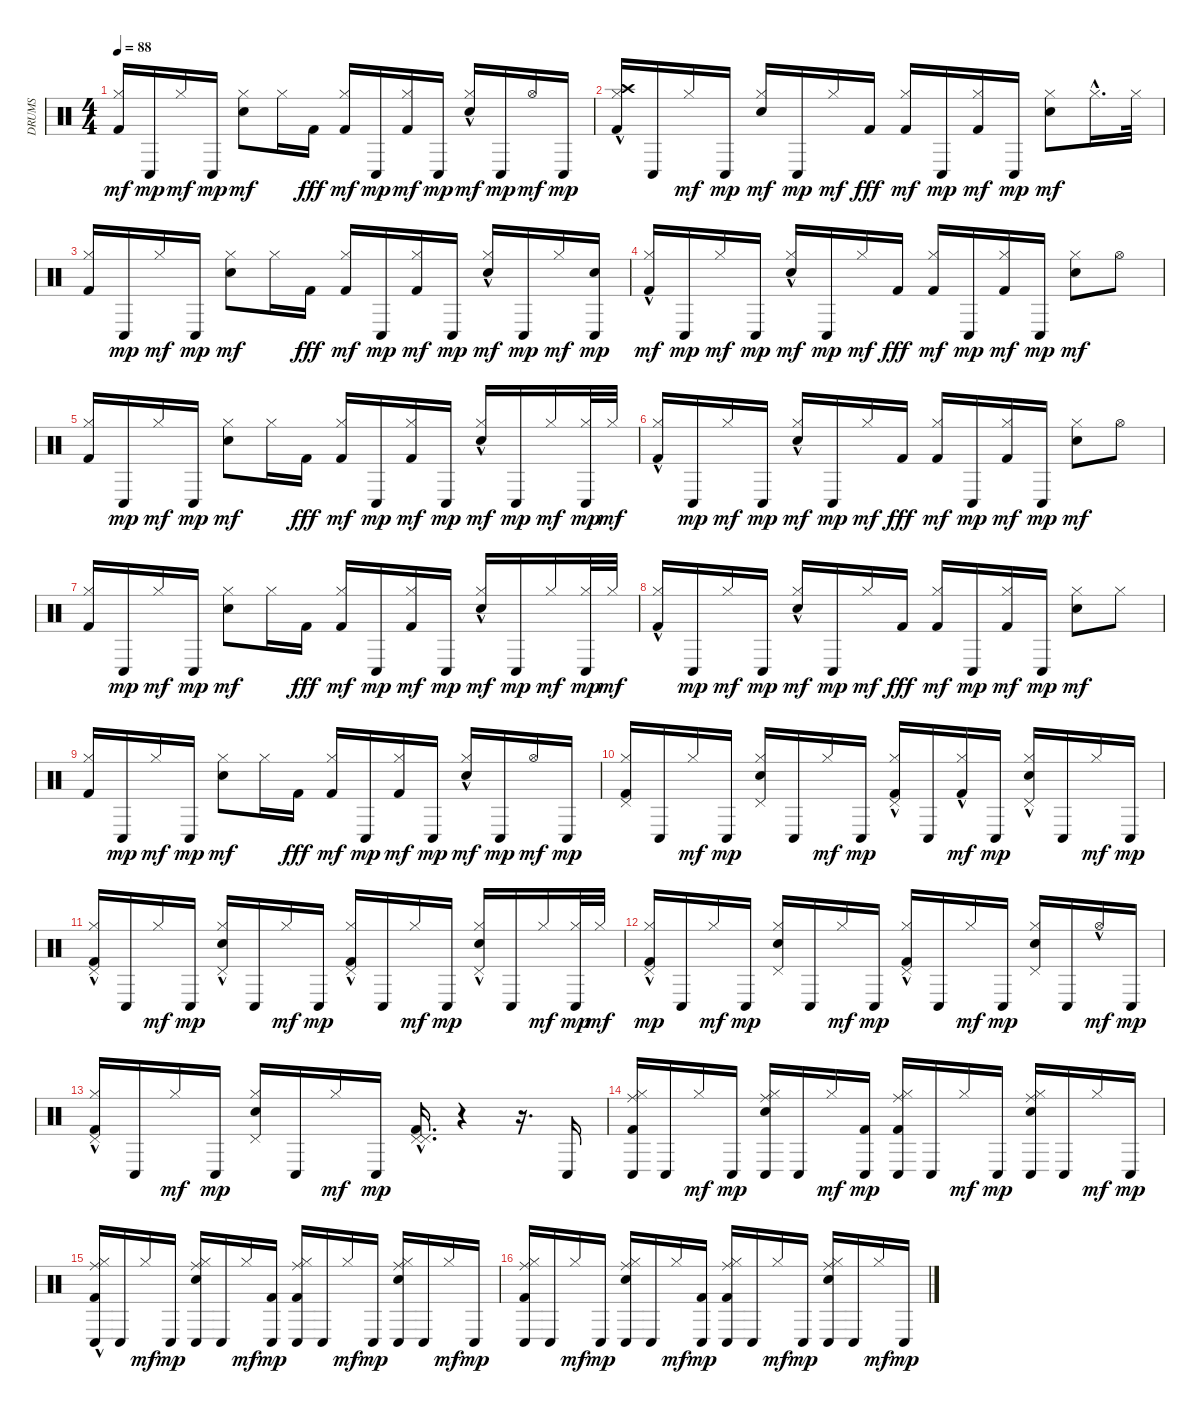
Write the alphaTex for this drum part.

\track ("DRUMS" "DRUMS") {instrument percussion}
\staff {score}
\articulation defaults
\ts (4 4)
\tempo 88
\clef neutral
\ks c
("Kick (hit) 2" "Hi-Hat (closed)").16{dy mf} "Conga low (hit)".16{dy mp} "Hi-Hat (closed)".16{dy mf} "Conga low (hit)".16{dy mp} ("Snare (hit) 2" "Hi-Hat (closed)").8{dy mf} "Hi-Hat (closed)".16 "Kick (hit) 2".16{dy fff} ("Kick (hit) 2" "Hi-Hat (closed)").16{dy mf} "Conga low (hit)".16{dy mp} ("Kick (hit) 2" "Hi-Hat (closed)").16{dy mf} "Conga low (hit)".16{dy mp} ("Snare (hit) 2"{hac} "Hi-Hat (closed)").16{dy mf} "Conga low (hit)".16{dy mp} "Hi-Hat (open)".16{dy mf} "Conga low (hit)".16{dy mp} |
("Kick (hit) 2"{hac} "Hi-Hat (closed)" "Crash high (hit)").16 "Conga low (hit)".16 "Hi-Hat (closed)".16{dy mf} "Conga low (hit)".16{dy mp} ("Snare (hit) 2" "Hi-Hat (closed)").16{dy mf} "Conga low (hit)".16{dy mp} "Hi-Hat (closed)".16{dy mf} "Kick (hit) 2".16{dy fff} ("Kick (hit) 2" "Hi-Hat (closed)").16{dy mf} "Conga low (hit)".16{dy mp} ("Kick (hit) 2" "Hi-Hat (closed)").16{dy mf} "Conga low (hit)".16{dy mp} ("Snare (hit) 2" "Hi-Hat (closed)").8{dy mf} "Hi-Hat (closed)"{hac}.16{d} "Hi-Hat (closed)".32 |
("Kick (hit) 2" "Hi-Hat (closed)").16 "Conga low (hit)".16{dy mp} "Hi-Hat (closed)".16{dy mf} "Conga low (hit)".16{dy mp} ("Snare (hit) 2" "Hi-Hat (closed)").8{dy mf} "Hi-Hat (closed)".16 "Kick (hit) 2".16{dy fff} ("Kick (hit) 2" "Hi-Hat (closed)").16{dy mf} "Conga low (hit)".16{dy mp} ("Kick (hit) 2" "Hi-Hat (closed)").16{dy mf} "Conga low (hit)".16{dy mp} ("Snare (hit) 2"{hac} "Hi-Hat (closed)").16{dy mf} "Conga low (hit)".16{dy mp} "Hi-Hat (closed)".16{dy mf} ("Snare (hit) 2" "Conga low (hit)").16{dy mp} |
("Kick (hit) 2"{hac} "Hi-Hat (closed)").16{dy mf} "Conga low (hit)".16{dy mp} "Hi-Hat (closed)".16{dy mf} "Conga low (hit)".16{dy mp} ("Snare (hit) 2"{hac} "Hi-Hat (closed)").16{dy mf} "Conga low (hit)".16{dy mp} "Hi-Hat (closed)".16{dy mf} "Kick (hit) 2".16{dy fff} ("Kick (hit) 2" "Hi-Hat (closed)").16{dy mf} "Conga low (hit)".16{dy mp} ("Kick (hit) 2" "Hi-Hat (closed)").16{dy mf} "Conga low (hit)".16{dy mp} ("Snare (hit) 2" "Hi-Hat (closed)").8{dy mf} "Hi-Hat (open)".8 |
("Kick (hit) 2" "Hi-Hat (closed)").16 "Conga low (hit)".16{dy mp} "Hi-Hat (closed)".16{dy mf} "Conga low (hit)".16{dy mp} ("Snare (hit) 2" "Hi-Hat (closed)").8{dy mf} "Hi-Hat (closed)".16 "Kick (hit) 2".16{dy fff} ("Kick (hit) 2" "Hi-Hat (closed)").16{dy mf} "Conga low (hit)".16{dy mp} ("Kick (hit) 2" "Hi-Hat (closed)").16{dy mf} "Conga low (hit)".16{dy mp} ("Snare (hit) 2"{hac} "Hi-Hat (closed)").16{dy mf} "Conga low (hit)".16{dy mp} "Hi-Hat (closed)".16{dy mf} ("Hi-Hat (closed)" "Conga low (hit)").32{dy mp} "Hi-Hat (closed)".32{dy mf} |
("Kick (hit) 2"{hac} "Hi-Hat (closed)").16 "Conga low (hit)".16{dy mp} "Hi-Hat (closed)".16{dy mf} "Conga low (hit)".16{dy mp} ("Snare (hit) 2"{hac} "Hi-Hat (closed)").16{dy mf} "Conga low (hit)".16{dy mp} "Hi-Hat (closed)".16{dy mf} "Kick (hit) 2".16{dy fff} ("Kick (hit) 2" "Hi-Hat (closed)").16{dy mf} "Conga low (hit)".16{dy mp} ("Kick (hit) 2" "Hi-Hat (closed)").16{dy mf} "Conga low (hit)".16{dy mp} ("Snare (hit) 2" "Hi-Hat (closed)").8{dy mf} "Hi-Hat (open)".8 |
("Kick (hit) 2" "Hi-Hat (closed)").16 "Conga low (hit)".16{dy mp} "Hi-Hat (closed)".16{dy mf} "Conga low (hit)".16{dy mp} ("Snare (hit) 2" "Hi-Hat (closed)").8{dy mf} "Hi-Hat (closed)".16 "Kick (hit) 2".16{dy fff} ("Kick (hit) 2" "Hi-Hat (closed)").16{dy mf} "Conga low (hit)".16{dy mp} ("Kick (hit) 2" "Hi-Hat (closed)").16{dy mf} "Conga low (hit)".16{dy mp} ("Snare (hit) 2"{hac} "Hi-Hat (closed)").16{dy mf} "Conga low (hit)".16{dy mp} "Hi-Hat (closed)".16{dy mf} ("Hi-Hat (closed)" "Conga low (hit)").32{dy mp} "Hi-Hat (closed)".32{dy mf} |
("Kick (hit) 2"{hac} "Hi-Hat (closed)").16 "Conga low (hit)".16{dy mp} "Hi-Hat (closed)".16{dy mf} "Conga low (hit)".16{dy mp} ("Snare (hit) 2"{hac} "Hi-Hat (closed)").16{dy mf} "Conga low (hit)".16{dy mp} "Hi-Hat (closed)".16{dy mf} "Kick (hit) 2".16{dy fff} ("Kick (hit) 2" "Hi-Hat (closed)").16{dy mf} "Conga low (hit)".16{dy mp} ("Kick (hit) 2" "Hi-Hat (closed)").16{dy mf} "Conga low (hit)".16{dy mp} ("Snare (hit) 2" "Hi-Hat (closed)").8{dy mf} "Hi-Hat (closed)".8 |
("Kick (hit) 2" "Hi-Hat (closed)").16 "Conga low (hit)".16{dy mp} "Hi-Hat (closed)".16{dy mf} "Conga low (hit)".16{dy mp} ("Snare (hit) 2" "Hi-Hat (closed)").8{dy mf} "Hi-Hat (closed)".16 "Kick (hit) 2".16{dy fff} ("Kick (hit) 2" "Hi-Hat (closed)").16{dy mf} "Conga low (hit)".16{dy mp} ("Kick (hit) 2" "Hi-Hat (closed)").16{dy mf} "Conga low (hit)".16{dy mp} ("Snare (hit) 2"{hac} "Hi-Hat (closed)").16{dy mf} "Conga low (hit)".16{dy mp} "Hi-Hat (open)".16{dy mf} "Conga low (hit)".16{dy mp} |
("Kick (hit) 2" "Hi-Hat (closed)" "Pedal Hi-Hat (hit)").16 "Conga low (hit)".16 "Hi-Hat (closed)".16{dy mf} "Conga low (hit)".16{dy mp} ("Snare (hit) 2" "Hi-Hat (closed)" "Pedal Hi-Hat (hit)").16 "Conga low (hit)".16 "Hi-Hat (closed)".16{dy mf} "Conga low (hit)".16{dy mp} ("Kick (hit) 2" "Hi-Hat (closed)" "Pedal Hi-Hat (hit)"{hac}).16 "Conga low (hit)".16 ("Kick (hit) 2"{hac} "Hi-Hat (closed)").16{dy mf} "Conga low (hit)".16{dy mp} ("Snare (hit) 2"{hac} "Hi-Hat (closed)" "Pedal Hi-Hat (hit)").16 "Conga low (hit)".16 "Hi-Hat (closed)".16{dy mf} "Conga low (hit)".16{dy mp} |
("Kick (hit) 2"{hac} "Hi-Hat (closed)" "Pedal Hi-Hat (hit)").16 "Conga low (hit)".16 "Hi-Hat (closed)".16{dy mf} "Conga low (hit)".16{dy mp} ("Snare (hit) 2"{hac} "Hi-Hat (closed)" "Pedal Hi-Hat (hit)").16 "Conga low (hit)".16 "Hi-Hat (closed)".16{dy mf} "Conga low (hit)".16{dy mp} ("Kick (hit) 2"{hac} "Hi-Hat (closed)" "Pedal Hi-Hat (hit)").16 "Conga low (hit)".16 "Hi-Hat (closed)".16{dy mf} "Conga low (hit)".16{dy mp} ("Snare (hit) 2"{hac} "Hi-Hat (closed)" "Pedal Hi-Hat (hit)").16 "Conga low (hit)".16 "Hi-Hat (closed)".16{dy mf} ("Hi-Hat (closed)" "Conga low (hit)").32{dy mp} "Hi-Hat (closed)".32{dy mf} |
("Kick (hit) 2"{hac} "Hi-Hat (closed)" "Pedal Hi-Hat (hit)").16{dy mp} "Conga low (hit)".16 "Hi-Hat (closed)".16{dy mf} "Conga low (hit)".16{dy mp} ("Snare (hit) 2" "Hi-Hat (closed)" "Pedal Hi-Hat (hit)").16 "Conga low (hit)".16 "Hi-Hat (closed)".16{dy mf} "Conga low (hit)".16{dy mp} ("Kick (hit) 2"{hac} "Hi-Hat (closed)" "Pedal Hi-Hat (hit)").16 "Conga low (hit)".16 "Hi-Hat (closed)".16{dy mf} "Conga low (hit)".16{dy mp} ("Snare (hit) 2" "Hi-Hat (closed)" "Pedal Hi-Hat (hit)").16 "Conga low (hit)".16 "Hi-Hat (open)"{hac}.16{dy mf} "Conga low (hit)".16{dy mp} |
("Kick (hit) 2"{hac} "Hi-Hat (closed)" "Pedal Hi-Hat (hit)").16 "Conga low (hit)".16 "Hi-Hat (closed)".16{dy mf} "Conga low (hit)".16{dy mp} ("Snare (hit) 2" "Hi-Hat (closed)" "Pedal Hi-Hat (hit)").16 "Conga low (hit)".16 "Hi-Hat (closed)".16{dy mf} "Conga low (hit)".16{dy mp} ("Kick (hit) 2"{hac} "Pedal Hi-Hat (hit)" "Pedal Hi-Hat (hit)").16{d} r.4 r.16{d} "Conga low (hit)".16 |
("Kick (hit) 2" "Hi-Hat (closed)" "Conga low (hit)" "Ride (middle)").16 "Conga low (hit)".16 "Hi-Hat (closed)".16{dy mf} "Conga low (hit)".16{dy mp} ("Snare (hit) 2" "Hi-Hat (closed)" "Conga low (hit)" "Ride (middle)").16 "Conga low (hit)".16 "Hi-Hat (closed)".16{dy mf} ("Kick (hit) 2" "Conga low (hit)").16{dy mp} ("Kick (hit) 2" "Hi-Hat (closed)" "Conga low (hit)" "Ride (middle)").16 "Conga low (hit)".16 "Hi-Hat (closed)".16{dy mf} "Conga low (hit)".16{dy mp} ("Snare (hit) 2" "Hi-Hat (closed)" "Conga low (hit)" "Ride (middle)").16 "Conga low (hit)".16 "Hi-Hat (closed)".16{dy mf} "Conga low (hit)".16{dy mp} |
("Kick (hit) 2"{hac} "Hi-Hat (closed)" "Conga low (hit)" "Ride (middle)").16 "Conga low (hit)".16 "Hi-Hat (closed)".16{dy mf} "Conga low (hit)".16{dy mp} ("Snare (hit) 2" "Hi-Hat (closed)" "Conga low (hit)" "Ride (middle)").16 "Conga low (hit)".16 "Hi-Hat (closed)".16{dy mf} ("Kick (hit) 2" "Conga low (hit)").16{dy mp} ("Kick (hit) 2" "Hi-Hat (closed)" "Conga low (hit)" "Ride (middle)").16 "Conga low (hit)".16 "Hi-Hat (closed)".16{dy mf} "Conga low (hit)".16{dy mp} ("Snare (hit) 2" "Hi-Hat (closed)" "Conga low (hit)" "Ride (middle)").16 "Conga low (hit)".16 "Hi-Hat (closed)".16{dy mf} "Conga low (hit)".16{dy mp} |
("Kick (hit) 2" "Hi-Hat (closed)" "Conga low (hit)" "Ride (middle)").16 "Conga low (hit)".16 "Hi-Hat (closed)".16{dy mf} "Conga low (hit)".16{dy mp} ("Snare (hit) 2" "Hi-Hat (closed)" "Conga low (hit)" "Ride (middle)").16 "Conga low (hit)".16 "Hi-Hat (closed)".16{dy mf} ("Kick (hit) 2" "Conga low (hit)").16{dy mp} ("Kick (hit) 2" "Hi-Hat (closed)" "Conga low (hit)" "Ride (middle)").16 "Conga low (hit)".16 "Hi-Hat (closed)".16{dy mf} "Conga low (hit)".16{dy mp} ("Snare (hit) 2" "Hi-Hat (closed)" "Conga low (hit)" "Ride (middle)").16 "Conga low (hit)".16 "Hi-Hat (closed)".16{dy mf} "Conga low (hit)".16{dy mp}
